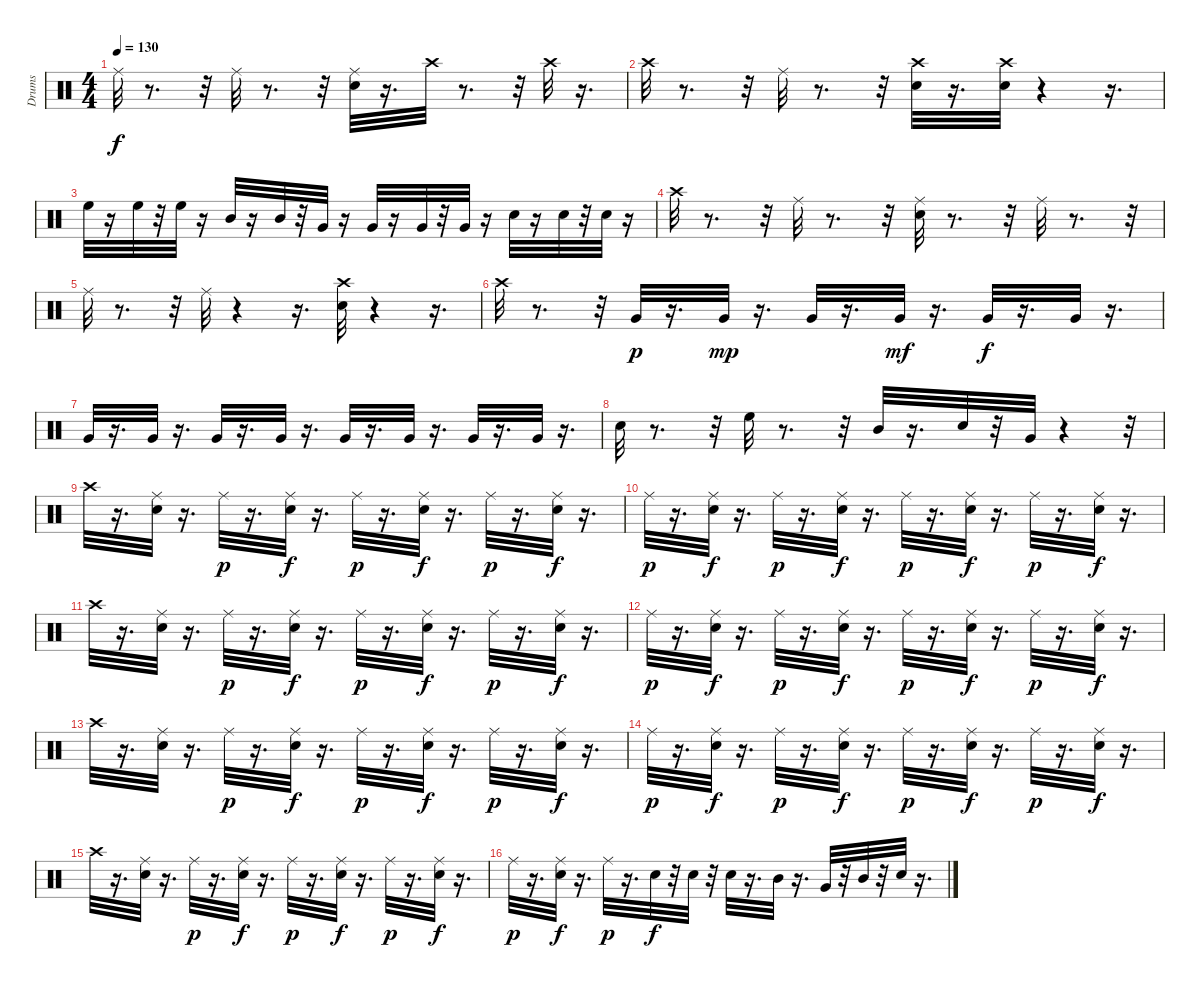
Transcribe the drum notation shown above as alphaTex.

\track ("Drums" "Drums") {instrument percussion}
\staff {score}
\articulation defaults
\ts (4 4)
\tempo 130
\clef neutral
\ks c "Ride (middle)".32{dy f}
r.8{d} r.32 "Ride (middle)".32 r.8{d} r.32 ("Snare (hit) 2" "Ride (middle)").32 r.16{d} "Crash high (hit)".32 r.8{d} r.32 "Crash high (hit)".32 r.16{d} |
"Crash high (hit)".32 r.8{d} r.32 "Ride (middle)".32 r.8{d} r.32 ("Crash high (hit)" "Snare (hit) 2").32 r.16{d} ("Crash high (hit)" "Snare (hit) 2").32 r.4 r.16{d} |
"High Floor Tom (hit)".32 r.16 "High Floor Tom (hit)".32 r.32 "High Floor Tom (hit)".32 r.16 "Mid Tom (hit)".32 r.16 "Mid Tom (hit)".32 r.32 "Very Low Tom (hit)".32 r.16 "Very Low Tom (hit)".32 r.16 "Very Low Tom (hit)".32 r.32 "Very Low Tom (hit)".32 r.16 "Snare (hit)".32 r.16 "Snare (hit)".32 r.32 "Snare (hit)".32 r.16 |
"Crash high (hit)".32 r.8{d} r.32 "Ride (middle)".32 r.8{d} r.32 ("Snare (hit) 2" "Ride (middle)").32 r.8{d} r.32 "Ride (middle)".32 r.8{d} r.32 |
"Ride (middle)".32 r.8{d} r.32 "Ride (middle)".32 r.4 r.16{d} ("Crash high (hit)" "Snare (hit) 2").32 r.4 r.16{d} |
"Crash high (hit)".32 r.8{d} r.32 "Very Low Tom (hit)".32{dy p} r.16{d} "Very Low Tom (hit)".32{dy mp} r.16{d} "Very Low Tom (hit)".32 r.16{d} "Very Low Tom (hit)".32{dy mf} r.16{d} "Very Low Tom (hit)".32{dy f} r.16{d} "Very Low Tom (hit)".32 r.16{d} |
"Very Low Tom (hit)".32 r.16{d} "Very Low Tom (hit)".32 r.16{d} "Very Low Tom (hit)".32 r.16{d} "Very Low Tom (hit)".32 r.16{d} "Very Low Tom (hit)".32 r.16{d} "Very Low Tom (hit)".32 r.16{d} "Very Low Tom (hit)".32 r.16{d} "Very Low Tom (hit)".32 r.16{d} |
"Snare (hit) 2".32 r.8{d} r.32 "High Floor Tom (hit)".32 r.8{d} r.32 "Mid Tom (hit)".32 r.16{d} "Snare (hit) 2".32 r.32 "Very Low Tom (hit)".32 r.4 r.32 |
"Crash high (hit)".32 r.16{d} ("Snare (hit) 2" "Ride (middle)").32 r.16{d} "Ride (middle)".32{dy p} r.16{d} ("Snare (hit) 2" "Ride (middle)").32{dy f} r.16{d} "Ride (middle)".32{dy p} r.16{d} ("Snare (hit) 2" "Ride (middle)").32{dy f} r.16{d} "Ride (middle)".32{dy p} r.16{d} ("Snare (hit) 2" "Ride (middle)").32{dy f} r.16{d} |
"Ride (middle)".32{dy p} r.16{d} ("Snare (hit) 2" "Ride (middle)").32{dy f} r.16{d} "Ride (middle)".32{dy p} r.16{d} ("Snare (hit) 2" "Ride (middle)").32{dy f} r.16{d} "Ride (middle)".32{dy p} r.16{d} ("Snare (hit) 2" "Ride (middle)").32{dy f} r.16{d} "Ride (middle)".32{dy p} r.16{d} ("Snare (hit) 2" "Ride (middle)").32{dy f} r.16{d} |
"Crash high (hit)".32 r.16{d} ("Snare (hit) 2" "Ride (middle)").32 r.16{d} "Ride (middle)".32{dy p} r.16{d} ("Snare (hit) 2" "Ride (middle)").32{dy f} r.16{d} "Ride (middle)".32{dy p} r.16{d} ("Snare (hit) 2" "Ride (middle)").32{dy f} r.16{d} "Ride (middle)".32{dy p} r.16{d} ("Snare (hit) 2" "Ride (middle)").32{dy f} r.16{d} |
"Ride (middle)".32{dy p} r.16{d} ("Snare (hit) 2" "Ride (middle)").32{dy f} r.16{d} "Ride (middle)".32{dy p} r.16{d} ("Snare (hit) 2" "Ride (middle)").32{dy f} r.16{d} "Ride (middle)".32{dy p} r.16{d} ("Snare (hit) 2" "Ride (middle)").32{dy f} r.16{d} "Ride (middle)".32{dy p} r.16{d} ("Snare (hit) 2" "Ride (middle)").32{dy f} r.16{d} |
"Crash high (hit)".32 r.16{d} ("Snare (hit) 2" "Ride (middle)").32 r.16{d} "Ride (middle)".32{dy p} r.16{d} ("Snare (hit) 2" "Ride (middle)").32{dy f} r.16{d} "Ride (middle)".32{dy p} r.16{d} ("Snare (hit) 2" "Ride (middle)").32{dy f} r.16{d} "Ride (middle)".32{dy p} r.16{d} ("Snare (hit) 2" "Ride (middle)").32{dy f} r.16{d} |
"Ride (middle)".32{dy p} r.16{d} ("Snare (hit) 2" "Ride (middle)").32{dy f} r.16{d} "Ride (middle)".32{dy p} r.16{d} ("Snare (hit) 2" "Ride (middle)").32{dy f} r.16{d} "Ride (middle)".32{dy p} r.16{d} ("Snare (hit) 2" "Ride (middle)").32{dy f} r.16{d} "Ride (middle)".32{dy p} r.16{d} ("Snare (hit) 2" "Ride (middle)").32{dy f} r.16{d} |
"Crash high (hit)".32 r.16{d} ("Snare (hit) 2" "Ride (middle)").32 r.16{d} "Ride (middle)".32{dy p} r.16{d} ("Snare (hit) 2" "Ride (middle)").32{dy f} r.16{d} "Ride (middle)".32{dy p} r.16{d} ("Snare (hit) 2" "Ride (middle)").32{dy f} r.16{d} "Ride (middle)".32{dy p} r.16{d} ("Snare (hit) 2" "Ride (middle)").32{dy f} r.16{d} |
"Ride (middle)".32{dy p} r.16{d} ("Snare (hit) 2" "Ride (middle)").32{dy f} r.16{d} "Ride (middle)".32{dy p} r.16{d} "Snare (hit) 2".32{dy f} r.32 "Snare (hit) 2".32 r.32 "Snare (hit) 2".32 r.16{d} "Mid Tom (hit)".32 r.16{d} "Very Low Tom (hit)".32 r.32 "Mid Tom (hit)".32 r.32 "Snare (hit)".32 r.16{d}
